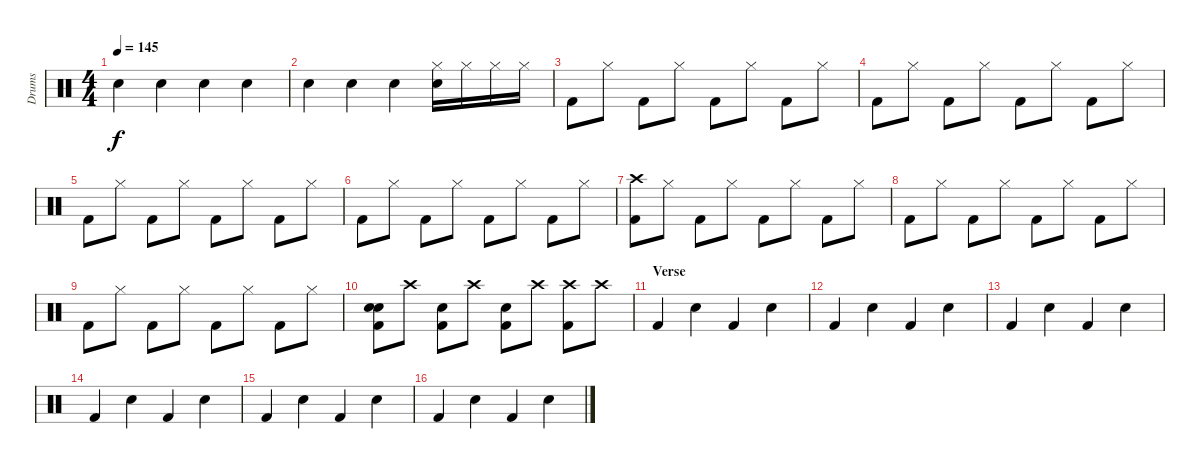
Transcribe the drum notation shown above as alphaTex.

\track ("Drums" "Drums") {instrument percussion}
\staff {score}
\articulation defaults
\ts (4 4)
\tempo 145
\clef neutral
\ks c "Electric Snare (hit)".4{dy f} "Electric Snare (hit)".4 "Electric Snare (hit)".4 "Electric Snare (hit)".4
|
"Electric Snare (hit)".4 "Electric Snare (hit)".4 "Electric Snare (hit)".4 ("Hi-Hat (closed)" "Electric Snare (hit)").16 "Hi-Hat (closed)".16 "Hi-Hat (closed)".16 "Hi-Hat (closed)".16 |
"Kick (hit) 2".8 "Hi-Hat (closed)".8 "Kick (hit) 2".8 "Hi-Hat (closed)".8 "Kick (hit) 2".8 "Hi-Hat (closed)".8 "Kick (hit) 2".8 "Hi-Hat (closed)".8 |
"Kick (hit) 2".8 "Hi-Hat (closed)".8 "Kick (hit) 2".8 "Hi-Hat (closed)".8 "Kick (hit) 2".8 "Hi-Hat (closed)".8 "Kick (hit) 2".8 "Hi-Hat (closed)".8 |
"Kick (hit) 2".8 "Hi-Hat (closed)".8 "Kick (hit) 2".8 "Hi-Hat (closed)".8 "Kick (hit) 2".8 "Hi-Hat (closed)".8 "Kick (hit) 2".8 "Hi-Hat (closed)".8 |
"Kick (hit) 2".8 "Hi-Hat (closed)".8 "Kick (hit) 2".8 "Hi-Hat (closed)".8 "Kick (hit) 2".8 "Hi-Hat (closed)".8 "Kick (hit) 2".8 "Hi-Hat (closed)".8 |
("Crash high (hit)" "Kick (hit) 2").8 "Hi-Hat (closed)".8 "Kick (hit) 2".8 "Hi-Hat (closed)".8 "Kick (hit) 2".8 "Hi-Hat (closed)".8 "Kick (hit) 2".8 "Hi-Hat (closed)".8 |
"Kick (hit) 2".8 "Hi-Hat (closed)".8 "Kick (hit) 2".8 "Hi-Hat (closed)".8 "Kick (hit) 2".8 "Hi-Hat (closed)".8 "Kick (hit) 2".8 "Hi-Hat (closed)".8 |
"Kick (hit) 2".8 "Hi-Hat (closed)".8 "Kick (hit) 2".8 "Hi-Hat (closed)".8 "Kick (hit) 2".8 "Hi-Hat (closed)".8 "Kick (hit) 2".8 "Hi-Hat (closed)".8 |
("Snare (hit) 2" "Snare (hit) 2" "Kick (hit) 2").8 "Crash high (hit)".8 ("Snare (hit) 2" "Kick (hit) 2").8 "Crash high (hit)".8 ("Snare (hit) 2" "Kick (hit) 2").8 "Crash high (hit)".8 ("Crash high (hit)" "Kick (hit) 2").8 "Crash high (hit)".8 |
\section ("" "Verse")
"Kick (hit) 2".4 "Snare (hit) 2".4 "Kick (hit) 2".4 "Snare (hit) 2".4 |
"Kick (hit) 2".4 "Snare (hit) 2".4 "Kick (hit) 2".4 "Snare (hit) 2".4 |
"Kick (hit) 2".4 "Snare (hit) 2".4 "Kick (hit) 2".4 "Snare (hit) 2".4 |
"Kick (hit) 2".4 "Snare (hit) 2".4 "Kick (hit) 2".4 "Snare (hit) 2".4 |
"Kick (hit) 2".4 "Snare (hit) 2".4 "Kick (hit) 2".4 "Snare (hit) 2".4 |
"Kick (hit) 2".4 "Snare (hit) 2".4 "Kick (hit) 2".4 "Snare (hit) 2".4
